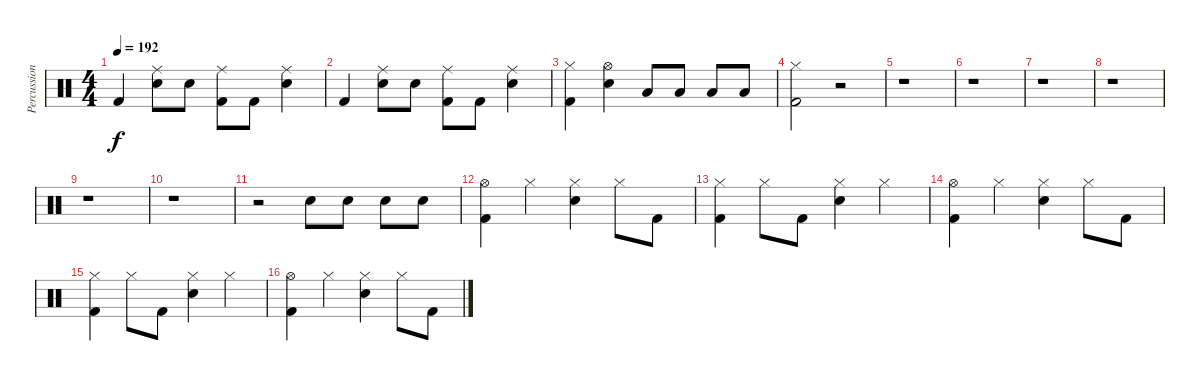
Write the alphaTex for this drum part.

\track ("Percussions" "Percussion") {instrument percussion}
\staff {score}
\articulation defaults
\ts (4 4)
\tempo 192
\clef neutral
\ks c "Kick (hit) 2".4{dy f}
("Electric Snare (hit)" "Ride (middle)").8 "Electric Snare (hit)".8 ("Kick (hit) 2" "Ride (middle)").8 "Kick (hit) 2".8 ("Electric Snare (hit)" "Ride (middle)").4 |
"Kick (hit) 2".4 ("Electric Snare (hit)" "Ride (middle)").8 "Electric Snare (hit)".8 ("Kick (hit) 2" "Ride (middle)").8 "Kick (hit) 2".8 ("Electric Snare (hit)" "Ride (middle)").4 |
("Kick (hit) 2" "Hi-Hat (closed)").4 ("Electric Snare (hit)" "Hi-Hat (open)").4 "Low Tom (hit)".8 "Low Tom (hit)".8 "Low Tom (hit)".8 "Low Tom (hit)".8 |
("Kick (hit) 2" "Hi-Hat (closed)").2 r.2 |
r.1 |
r.1 |
r.1 |
r.1 |
r.1 |
r.1 |
r.2 "Electric Snare (hit)".8 "Electric Snare (hit)".8 "Electric Snare (hit)".8 "Electric Snare (hit)".8 |
("Kick (hit) 2" "Hi-Hat (open)").4 "Hi-Hat (closed)".4 ("Electric Snare (hit)" "Hi-Hat (closed)").4 "Hi-Hat (closed)".8 "Kick (hit) 2".8 |
("Kick (hit) 2" "Hi-Hat (closed)").4 "Hi-Hat (closed)".8 "Kick (hit) 2".8 ("Electric Snare (hit)" "Hi-Hat (closed)").4 "Hi-Hat (closed)".4 |
("Kick (hit) 2" "Hi-Hat (open)").4 "Hi-Hat (closed)".4 ("Electric Snare (hit)" "Hi-Hat (closed)").4 "Hi-Hat (closed)".8 "Kick (hit) 2".8 |
("Kick (hit) 2" "Hi-Hat (closed)").4 "Hi-Hat (closed)".8 "Kick (hit) 2".8 ("Electric Snare (hit)" "Hi-Hat (closed)").4 "Hi-Hat (closed)".4 |
("Kick (hit) 2" "Hi-Hat (open)").4 "Hi-Hat (closed)".4 ("Electric Snare (hit)" "Hi-Hat (closed)").4 "Hi-Hat (closed)".8 "Kick (hit) 2".8
